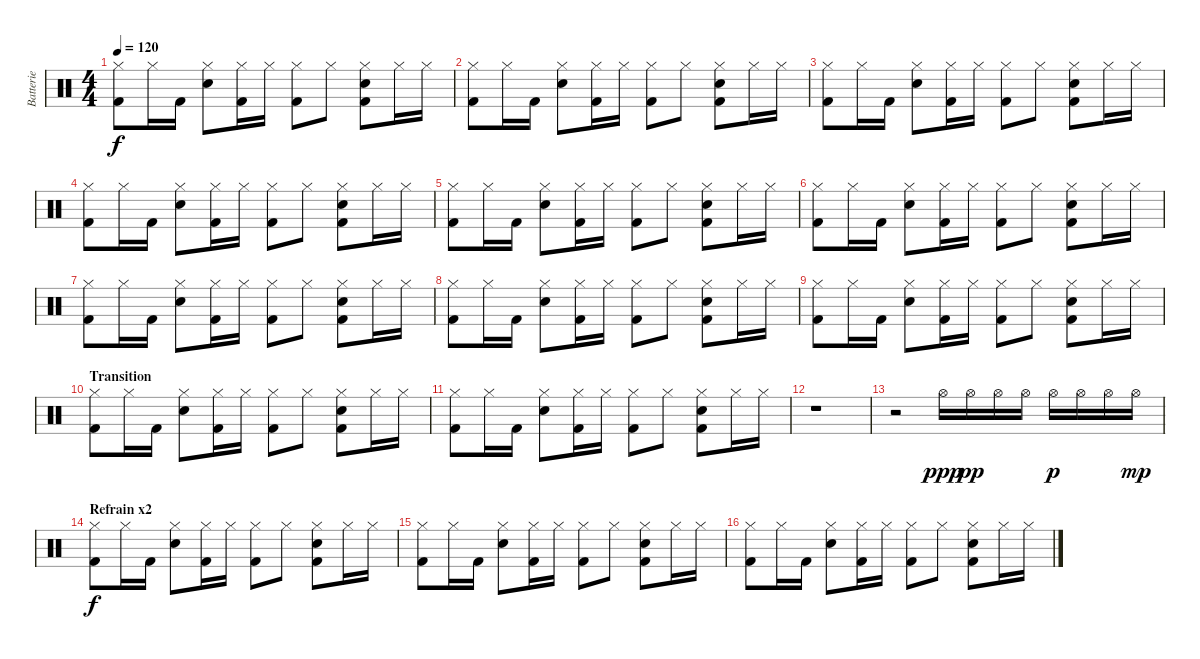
\track ("Batterie" "Batterie") {instrument percussion}
\staff {score}
\articulation defaults
\ts (4 4)
\tempo 120
\clef neutral
\ks c
("Kick (hit) 2" "Hi-Hat (closed)").8{dy f} "Hi-Hat (closed)".16 "Kick (hit) 2".16 ("Electric Snare (hit)" "Hi-Hat (closed)").8 ("Kick (hit) 2" "Hi-Hat (closed)").16 "Hi-Hat (closed)".16 ("Kick (hit) 2" "Hi-Hat (closed)").8 "Hi-Hat (closed)".8 ("Kick (hit) 2" "Electric Snare (hit)" "Hi-Hat (closed)").8 "Hi-Hat (closed)".16 "Hi-Hat (closed)".16 |
("Kick (hit) 2" "Hi-Hat (closed)").8 "Hi-Hat (closed)".16 "Kick (hit) 2".16 ("Electric Snare (hit)" "Hi-Hat (closed)").8 ("Kick (hit) 2" "Hi-Hat (closed)").16 "Hi-Hat (closed)".16 ("Kick (hit) 2" "Hi-Hat (closed)").8 "Hi-Hat (closed)".8 ("Kick (hit) 2" "Electric Snare (hit)" "Hi-Hat (closed)").8 "Hi-Hat (closed)".16 "Hi-Hat (closed)".16 |
("Kick (hit) 2" "Hi-Hat (closed)").8 "Hi-Hat (closed)".16 "Kick (hit) 2".16 ("Electric Snare (hit)" "Hi-Hat (closed)").8 ("Kick (hit) 2" "Hi-Hat (closed)").16 "Hi-Hat (closed)".16 ("Kick (hit) 2" "Hi-Hat (closed)").8 "Hi-Hat (closed)".8 ("Kick (hit) 2" "Electric Snare (hit)" "Hi-Hat (closed)").8 "Hi-Hat (closed)".16 "Hi-Hat (closed)".16 |
("Kick (hit) 2" "Hi-Hat (closed)").8 "Hi-Hat (closed)".16 "Kick (hit) 2".16 ("Electric Snare (hit)" "Hi-Hat (closed)").8 ("Kick (hit) 2" "Hi-Hat (closed)").16 "Hi-Hat (closed)".16 ("Kick (hit) 2" "Hi-Hat (closed)").8 "Hi-Hat (closed)".8 ("Kick (hit) 2" "Electric Snare (hit)" "Hi-Hat (closed)").8 "Hi-Hat (closed)".16 "Hi-Hat (closed)".16 |
("Kick (hit) 2" "Hi-Hat (closed)").8 "Hi-Hat (closed)".16 "Kick (hit) 2".16 ("Electric Snare (hit)" "Hi-Hat (closed)").8 ("Kick (hit) 2" "Hi-Hat (closed)").16 "Hi-Hat (closed)".16 ("Kick (hit) 2" "Hi-Hat (closed)").8 "Hi-Hat (closed)".8 ("Kick (hit) 2" "Electric Snare (hit)" "Hi-Hat (closed)").8 "Hi-Hat (closed)".16 "Hi-Hat (closed)".16 |
("Kick (hit) 2" "Hi-Hat (closed)").8 "Hi-Hat (closed)".16 "Kick (hit) 2".16 ("Electric Snare (hit)" "Hi-Hat (closed)").8 ("Kick (hit) 2" "Hi-Hat (closed)").16 "Hi-Hat (closed)".16 ("Kick (hit) 2" "Hi-Hat (closed)").8 "Hi-Hat (closed)".8 ("Kick (hit) 2" "Electric Snare (hit)" "Hi-Hat (closed)").8 "Hi-Hat (closed)".16 "Hi-Hat (closed)".16 |
("Kick (hit) 2" "Hi-Hat (closed)").8 "Hi-Hat (closed)".16 "Kick (hit) 2".16 ("Electric Snare (hit)" "Hi-Hat (closed)").8 ("Kick (hit) 2" "Hi-Hat (closed)").16 "Hi-Hat (closed)".16 ("Kick (hit) 2" "Hi-Hat (closed)").8 "Hi-Hat (closed)".8 ("Kick (hit) 2" "Electric Snare (hit)" "Hi-Hat (closed)").8 "Hi-Hat (closed)".16 "Hi-Hat (closed)".16 |
("Kick (hit) 2" "Hi-Hat (closed)").8 "Hi-Hat (closed)".16 "Kick (hit) 2".16 ("Electric Snare (hit)" "Hi-Hat (closed)").8 ("Kick (hit) 2" "Hi-Hat (closed)").16 "Hi-Hat (closed)".16 ("Kick (hit) 2" "Hi-Hat (closed)").8 "Hi-Hat (closed)".8 ("Kick (hit) 2" "Electric Snare (hit)" "Hi-Hat (closed)").8 "Hi-Hat (closed)".16 "Hi-Hat (closed)".16 |
("Kick (hit) 2" "Hi-Hat (closed)").8 "Hi-Hat (closed)".16 "Kick (hit) 2".16 ("Electric Snare (hit)" "Hi-Hat (closed)").8 ("Kick (hit) 2" "Hi-Hat (closed)").16 "Hi-Hat (closed)".16 ("Kick (hit) 2" "Hi-Hat (closed)").8 "Hi-Hat (closed)".8 ("Kick (hit) 2" "Electric Snare (hit)" "Hi-Hat (closed)").8 "Hi-Hat (closed)".16 "Hi-Hat (closed)".16 |
\section ("" "Transition")
("Kick (hit) 2" "Hi-Hat (closed)").8 "Hi-Hat (closed)".16 "Kick (hit) 2".16 ("Electric Snare (hit)" "Hi-Hat (closed)").8 ("Kick (hit) 2" "Hi-Hat (closed)").16 "Hi-Hat (closed)".16 ("Kick (hit) 2" "Hi-Hat (closed)").8 "Hi-Hat (closed)".8 ("Kick (hit) 2" "Electric Snare (hit)" "Hi-Hat (closed)").8 "Hi-Hat (closed)".16 "Hi-Hat (closed)".16 |
("Kick (hit) 2" "Hi-Hat (closed)").8 "Hi-Hat (closed)".16 "Kick (hit) 2".16 ("Electric Snare (hit)" "Hi-Hat (closed)").8 ("Kick (hit) 2" "Hi-Hat (closed)").16 "Hi-Hat (closed)".16 ("Kick (hit) 2" "Hi-Hat (closed)").8 "Hi-Hat (closed)".8 ("Kick (hit) 2" "Electric Snare (hit)" "Hi-Hat (closed)").8 "Hi-Hat (closed)".16 "Hi-Hat (closed)".16 |
r.1 |
r.2 "Hi-Hat (open)".16{dy ppp} "Hi-Hat (open)".16{dy pp} "Hi-Hat (open)".16 "Hi-Hat (open)".16 "Hi-Hat (open)".16{dy p} "Hi-Hat (open)".16 "Hi-Hat (open)".16 "Hi-Hat (open)".16{dy mp} |
\section ("" "Refrain x2")
("Kick (hit) 2" "Hi-Hat (closed)").8{dy f} "Hi-Hat (closed)".16 "Kick (hit) 2".16 ("Electric Snare (hit)" "Hi-Hat (closed)").8 ("Kick (hit) 2" "Hi-Hat (closed)").16 "Hi-Hat (closed)".16 ("Kick (hit) 2" "Hi-Hat (closed)").8 "Hi-Hat (closed)".8 ("Kick (hit) 2" "Electric Snare (hit)" "Hi-Hat (closed)").8 "Hi-Hat (closed)".16 "Hi-Hat (closed)".16 |
("Kick (hit) 2" "Hi-Hat (closed)").8 "Hi-Hat (closed)".16 "Kick (hit) 2".16 ("Electric Snare (hit)" "Hi-Hat (closed)").8 ("Kick (hit) 2" "Hi-Hat (closed)").16 "Hi-Hat (closed)".16 ("Kick (hit) 2" "Hi-Hat (closed)").8 "Hi-Hat (closed)".8 ("Kick (hit) 2" "Electric Snare (hit)" "Hi-Hat (closed)").8 "Hi-Hat (closed)".16 "Hi-Hat (closed)".16 |
("Kick (hit) 2" "Hi-Hat (closed)").8 "Hi-Hat (closed)".16 "Kick (hit) 2".16 ("Electric Snare (hit)" "Hi-Hat (closed)").8 ("Kick (hit) 2" "Hi-Hat (closed)").16 "Hi-Hat (closed)".16 ("Kick (hit) 2" "Hi-Hat (closed)").8 "Hi-Hat (closed)".8 ("Kick (hit) 2" "Electric Snare (hit)" "Hi-Hat (closed)").8 "Hi-Hat (closed)".16 "Hi-Hat (closed)".16
